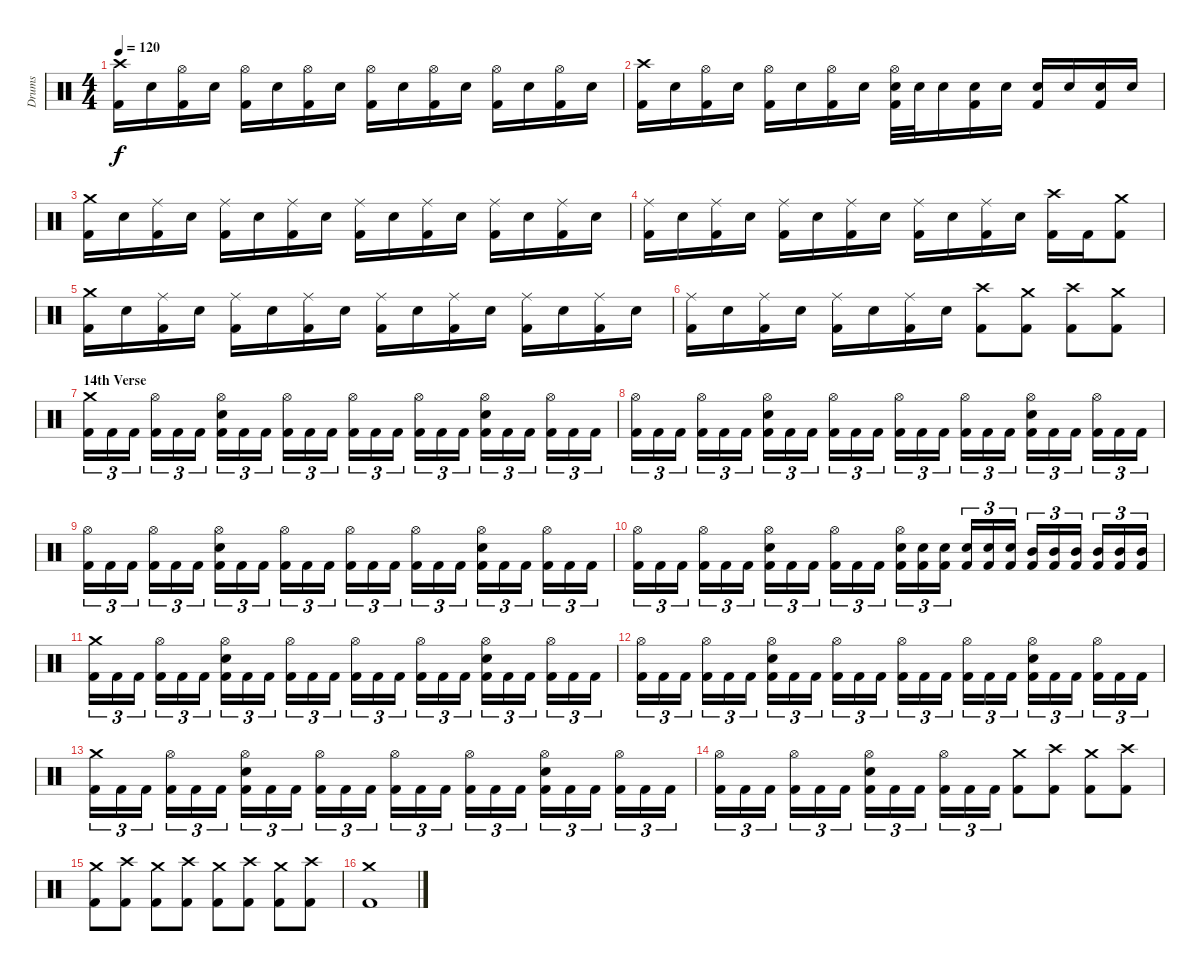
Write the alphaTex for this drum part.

\track ("Drums" "Drums") {instrument percussion}
\staff {score}
\articulation defaults
\ts (4 4)
\tempo 120
\clef neutral
\ks c
("Kick (hit) 2" "Crash high (hit)").16{dy f} "Electric Snare (hit)".16 ("Kick (hit) 2" "Hi-Hat (open)").16 "Electric Snare (hit)".16 ("Kick (hit) 2" "Hi-Hat (open)").16 "Electric Snare (hit)".16 ("Kick (hit) 2" "Hi-Hat (open)").16 "Electric Snare (hit)".16 ("Kick (hit) 2" "Hi-Hat (open)").16 "Electric Snare (hit)".16 ("Kick (hit) 2" "Hi-Hat (open)").16 "Electric Snare (hit)".16 ("Kick (hit) 2" "Hi-Hat (open)").16 "Electric Snare (hit)".16 ("Kick (hit) 2" "Hi-Hat (open)").16 "Electric Snare (hit)".16 |
("Kick (hit) 2" "Crash high (hit)").16 "Electric Snare (hit)".16 ("Kick (hit) 2" "Hi-Hat (open)").16 "Electric Snare (hit)".16 ("Kick (hit) 2" "Hi-Hat (open)").16 "Electric Snare (hit)".16 ("Kick (hit) 2" "Hi-Hat (open)").16 "Electric Snare (hit)".16 ("Kick (hit) 2" "Electric Snare (hit)" "Hi-Hat (open)").32 "Electric Snare (hit)".32 "Electric Snare (hit)".16 ("Kick (hit) 2" "Electric Snare (hit)").16 "Electric Snare (hit)".16 ("Kick (hit) 2" "Electric Snare (hit)").16 "Electric Snare (hit)".16 ("Kick (hit) 2" "Electric Snare (hit)").16 "Electric Snare (hit)".16 |
("Kick (hit) 2" "Crash medium (hit)").16 "Electric Snare (hit)".16 ("Kick (hit) 2" "Ride (middle)").16 "Electric Snare (hit)".16 ("Kick (hit) 2" "Ride (middle)").16 "Electric Snare (hit)".16 ("Kick (hit) 2" "Ride (middle)").16 "Electric Snare (hit)".16 ("Kick (hit) 2" "Ride (middle)").16 "Electric Snare (hit)".16 ("Kick (hit) 2" "Ride (middle)").16 "Electric Snare (hit)".16 ("Kick (hit) 2" "Ride (middle)").16 "Electric Snare (hit)".16 ("Kick (hit) 2" "Ride (middle)").16 "Electric Snare (hit)".16 |
("Kick (hit) 2" "Ride (middle)").16 "Electric Snare (hit)".16 ("Kick (hit) 2" "Ride (middle)").16 "Electric Snare (hit)".16 ("Kick (hit) 2" "Ride (middle)").16 "Electric Snare (hit)".16 ("Kick (hit) 2" "Ride (middle)").16 "Electric Snare (hit)".16 ("Kick (hit) 2" "Ride (middle)").16 "Electric Snare (hit)".16 ("Kick (hit) 2" "Ride (middle)").16 "Electric Snare (hit)".16 ("Kick (hit) 2" "Crash high (hit)").16 "Kick (hit) 2".16 ("Kick (hit) 2" "Crash medium (hit)").8 |
("Kick (hit) 2" "Crash medium (hit)").16 "Electric Snare (hit)".16 ("Kick (hit) 2" "Ride (middle)").16 "Electric Snare (hit)".16 ("Kick (hit) 2" "Ride (middle)").16 "Electric Snare (hit)".16 ("Kick (hit) 2" "Ride (middle)").16 "Electric Snare (hit)".16 ("Kick (hit) 2" "Ride (middle)").16 "Electric Snare (hit)".16 ("Kick (hit) 2" "Ride (middle)").16 "Electric Snare (hit)".16 ("Kick (hit) 2" "Ride (middle)").16 "Electric Snare (hit)".16 ("Kick (hit) 2" "Ride (middle)").16 "Electric Snare (hit)".16 |
("Kick (hit) 2" "Ride (middle)").16 "Electric Snare (hit)".16 ("Kick (hit) 2" "Ride (middle)").16 "Electric Snare (hit)".16 ("Kick (hit) 2" "Ride (middle)").16 "Electric Snare (hit)".16 ("Kick (hit) 2" "Ride (middle)").16 "Electric Snare (hit)".16 ("Kick (hit) 2" "Crash high (hit)").8 ("Kick (hit) 2" "Crash medium (hit)").8 ("Kick (hit) 2" "Crash high (hit)").8 ("Kick (hit) 2" "Crash medium (hit)").8 |
\section ("" "14th Verse")
("Kick (hit) 2" "Crash medium (hit)").16{tu (3 2)} "Kick (hit) 2".16{tu (3 2)} "Kick (hit) 2".16{tu (3 2)} ("Kick (hit) 2" "Hi-Hat (open)").16{tu (3 2)} "Kick (hit) 2".16{tu (3 2)} "Kick (hit) 2".16{tu (3 2)} ("Kick (hit) 2" "Electric Snare (hit)" "Hi-Hat (open)").16{tu (3 2)} "Kick (hit) 2".16{tu (3 2)} "Kick (hit) 2".16{tu (3 2)} ("Kick (hit) 2" "Hi-Hat (open)").16{tu (3 2)} "Kick (hit) 2".16{tu (3 2)} "Kick (hit) 2".16{tu (3 2)} ("Kick (hit) 2" "Hi-Hat (open)").16{tu (3 2)} "Kick (hit) 2".16{tu (3 2)} "Kick (hit) 2".16{tu (3 2)} ("Kick (hit) 2" "Hi-Hat (open)").16{tu (3 2)} "Kick (hit) 2".16{tu (3 2)} "Kick (hit) 2".16{tu (3 2)} ("Kick (hit) 2" "Electric Snare (hit)" "Hi-Hat (open)").16{tu (3 2)} "Kick (hit) 2".16{tu (3 2)} "Kick (hit) 2".16{tu (3 2)} ("Kick (hit) 2" "Hi-Hat (open)").16{tu (3 2)} "Kick (hit) 2".16{tu (3 2)} "Kick (hit) 2".16{tu (3 2)} |
("Kick (hit) 2" "Hi-Hat (open)").16{tu (3 2)} "Kick (hit) 2".16{tu (3 2)} "Kick (hit) 2".16{tu (3 2)} ("Kick (hit) 2" "Hi-Hat (open)").16{tu (3 2)} "Kick (hit) 2".16{tu (3 2)} "Kick (hit) 2".16{tu (3 2)} ("Kick (hit) 2" "Electric Snare (hit)" "Hi-Hat (open)").16{tu (3 2)} "Kick (hit) 2".16{tu (3 2)} "Kick (hit) 2".16{tu (3 2)} ("Kick (hit) 2" "Hi-Hat (open)").16{tu (3 2)} "Kick (hit) 2".16{tu (3 2)} "Kick (hit) 2".16{tu (3 2)} ("Kick (hit) 2" "Hi-Hat (open)").16{tu (3 2)} "Kick (hit) 2".16{tu (3 2)} "Kick (hit) 2".16{tu (3 2)} ("Kick (hit) 2" "Hi-Hat (open)").16{tu (3 2)} "Kick (hit) 2".16{tu (3 2)} "Kick (hit) 2".16{tu (3 2)} ("Kick (hit) 2" "Electric Snare (hit)" "Hi-Hat (open)").16{tu (3 2)} "Kick (hit) 2".16{tu (3 2)} "Kick (hit) 2".16{tu (3 2)} ("Kick (hit) 2" "Hi-Hat (open)").16{tu (3 2)} "Kick (hit) 2".16{tu (3 2)} "Kick (hit) 2".16{tu (3 2)} |
("Kick (hit) 2" "Hi-Hat (open)").16{tu (3 2)} "Kick (hit) 2".16{tu (3 2)} "Kick (hit) 2".16{tu (3 2)} ("Kick (hit) 2" "Hi-Hat (open)").16{tu (3 2)} "Kick (hit) 2".16{tu (3 2)} "Kick (hit) 2".16{tu (3 2)} ("Kick (hit) 2" "Electric Snare (hit)" "Hi-Hat (open)").16{tu (3 2)} "Kick (hit) 2".16{tu (3 2)} "Kick (hit) 2".16{tu (3 2)} ("Kick (hit) 2" "Hi-Hat (open)").16{tu (3 2)} "Kick (hit) 2".16{tu (3 2)} "Kick (hit) 2".16{tu (3 2)} ("Kick (hit) 2" "Hi-Hat (open)").16{tu (3 2)} "Kick (hit) 2".16{tu (3 2)} "Kick (hit) 2".16{tu (3 2)} ("Kick (hit) 2" "Hi-Hat (open)").16{tu (3 2)} "Kick (hit) 2".16{tu (3 2)} "Kick (hit) 2".16{tu (3 2)} ("Kick (hit) 2" "Electric Snare (hit)" "Hi-Hat (open)").16{tu (3 2)} "Kick (hit) 2".16{tu (3 2)} "Kick (hit) 2".16{tu (3 2)} ("Kick (hit) 2" "Hi-Hat (open)").16{tu (3 2)} "Kick (hit) 2".16{tu (3 2)} "Kick (hit) 2".16{tu (3 2)} |
("Kick (hit) 2" "Hi-Hat (open)").16{tu (3 2)} "Kick (hit) 2".16{tu (3 2)} "Kick (hit) 2".16{tu (3 2)} ("Kick (hit) 2" "Hi-Hat (open)").16{tu (3 2)} "Kick (hit) 2".16{tu (3 2)} "Kick (hit) 2".16{tu (3 2)} ("Kick (hit) 2" "Electric Snare (hit)" "Hi-Hat (open)").16{tu (3 2)} "Kick (hit) 2".16{tu (3 2)} "Kick (hit) 2".16{tu (3 2)} ("Kick (hit) 2" "Hi-Hat (open)").16{tu (3 2)} "Kick (hit) 2".16{tu (3 2)} "Kick (hit) 2".16{tu (3 2)} ("Kick (hit) 2" "Electric Snare (hit)" "Hi-Hat (open)").16{tu (3 2)} ("Kick (hit) 2" "Electric Snare (hit)").16{tu (3 2)} ("Kick (hit) 2" "Electric Snare (hit)").16{tu (3 2)} ("Kick (hit) 2" "Electric Snare (hit)").16{tu (3 2)} ("Kick (hit) 2" "Electric Snare (hit)").16{tu (3 2)} ("Kick (hit) 2" "Electric Snare (hit)").16{tu (3 2)} ("Kick (hit) 2" "Mid Tom (hit)").16{tu (3 2)} ("Kick (hit) 2" "Mid Tom (hit)").16{tu (3 2)} ("Kick (hit) 2" "Mid Tom (hit)").16{tu (3 2)} ("Kick (hit) 2" "Mid Tom (hit)").16{tu (3 2)} ("Kick (hit) 2" "Mid Tom (hit)").16{tu (3 2)} ("Kick (hit) 2" "Mid Tom (hit)").16{tu (3 2)} |
("Kick (hit) 2" "Crash medium (hit)").16{tu (3 2)} "Kick (hit) 2".16{tu (3 2)} "Kick (hit) 2".16{tu (3 2)} ("Kick (hit) 2" "Hi-Hat (open)").16{tu (3 2)} "Kick (hit) 2".16{tu (3 2)} "Kick (hit) 2".16{tu (3 2)} ("Kick (hit) 2" "Electric Snare (hit)" "Hi-Hat (open)").16{tu (3 2)} "Kick (hit) 2".16{tu (3 2)} "Kick (hit) 2".16{tu (3 2)} ("Kick (hit) 2" "Hi-Hat (open)").16{tu (3 2)} "Kick (hit) 2".16{tu (3 2)} "Kick (hit) 2".16{tu (3 2)} ("Kick (hit) 2" "Hi-Hat (open)").16{tu (3 2)} "Kick (hit) 2".16{tu (3 2)} "Kick (hit) 2".16{tu (3 2)} ("Kick (hit) 2" "Hi-Hat (open)").16{tu (3 2)} "Kick (hit) 2".16{tu (3 2)} "Kick (hit) 2".16{tu (3 2)} ("Kick (hit) 2" "Electric Snare (hit)" "Hi-Hat (open)").16{tu (3 2)} "Kick (hit) 2".16{tu (3 2)} "Kick (hit) 2".16{tu (3 2)} ("Kick (hit) 2" "Hi-Hat (open)").16{tu (3 2)} "Kick (hit) 2".16{tu (3 2)} "Kick (hit) 2".16{tu (3 2)} |
("Kick (hit) 2" "Hi-Hat (open)").16{tu (3 2)} "Kick (hit) 2".16{tu (3 2)} "Kick (hit) 2".16{tu (3 2)} ("Kick (hit) 2" "Hi-Hat (open)").16{tu (3 2)} "Kick (hit) 2".16{tu (3 2)} "Kick (hit) 2".16{tu (3 2)} ("Kick (hit) 2" "Electric Snare (hit)" "Hi-Hat (open)").16{tu (3 2)} "Kick (hit) 2".16{tu (3 2)} "Kick (hit) 2".16{tu (3 2)} ("Kick (hit) 2" "Hi-Hat (open)").16{tu (3 2)} "Kick (hit) 2".16{tu (3 2)} "Kick (hit) 2".16{tu (3 2)} ("Kick (hit) 2" "Hi-Hat (open)").16{tu (3 2)} "Kick (hit) 2".16{tu (3 2)} "Kick (hit) 2".16{tu (3 2)} ("Kick (hit) 2" "Hi-Hat (open)").16{tu (3 2)} "Kick (hit) 2".16{tu (3 2)} "Kick (hit) 2".16{tu (3 2)} ("Kick (hit) 2" "Electric Snare (hit)" "Hi-Hat (open)").16{tu (3 2)} "Kick (hit) 2".16{tu (3 2)} "Kick (hit) 2".16{tu (3 2)} ("Kick (hit) 2" "Hi-Hat (open)").16{tu (3 2)} "Kick (hit) 2".16{tu (3 2)} "Kick (hit) 2".16{tu (3 2)} |
("Kick (hit) 2" "Crash medium (hit)").16{tu (3 2)} "Kick (hit) 2".16{tu (3 2)} "Kick (hit) 2".16{tu (3 2)} ("Kick (hit) 2" "Hi-Hat (open)").16{tu (3 2)} "Kick (hit) 2".16{tu (3 2)} "Kick (hit) 2".16{tu (3 2)} ("Kick (hit) 2" "Electric Snare (hit)" "Hi-Hat (open)").16{tu (3 2)} "Kick (hit) 2".16{tu (3 2)} "Kick (hit) 2".16{tu (3 2)} ("Kick (hit) 2" "Hi-Hat (open)").16{tu (3 2)} "Kick (hit) 2".16{tu (3 2)} "Kick (hit) 2".16{tu (3 2)} ("Kick (hit) 2" "Hi-Hat (open)").16{tu (3 2)} "Kick (hit) 2".16{tu (3 2)} "Kick (hit) 2".16{tu (3 2)} ("Kick (hit) 2" "Hi-Hat (open)").16{tu (3 2)} "Kick (hit) 2".16{tu (3 2)} "Kick (hit) 2".16{tu (3 2)} ("Kick (hit) 2" "Electric Snare (hit)" "Hi-Hat (open)").16{tu (3 2)} "Kick (hit) 2".16{tu (3 2)} "Kick (hit) 2".16{tu (3 2)} ("Kick (hit) 2" "Hi-Hat (open)").16{tu (3 2)} "Kick (hit) 2".16{tu (3 2)} "Kick (hit) 2".16{tu (3 2)} |
("Kick (hit) 2" "Hi-Hat (open)").16{tu (3 2)} "Kick (hit) 2".16{tu (3 2)} "Kick (hit) 2".16{tu (3 2)} ("Kick (hit) 2" "Hi-Hat (open)").16{tu (3 2)} "Kick (hit) 2".16{tu (3 2)} "Kick (hit) 2".16{tu (3 2)} ("Kick (hit) 2" "Electric Snare (hit)" "Hi-Hat (open)").16{tu (3 2)} "Kick (hit) 2".16{tu (3 2)} "Kick (hit) 2".16{tu (3 2)} ("Kick (hit) 2" "Hi-Hat (open)").16{tu (3 2)} "Kick (hit) 2".16{tu (3 2)} "Kick (hit) 2".16{tu (3 2)} ("Kick (hit) 2" "Crash medium (hit)").8 ("Kick (hit) 2" "Crash high (hit)").8 ("Kick (hit) 2" "Crash medium (hit)").8 ("Kick (hit) 2" "Crash high (hit)").8 |
("Kick (hit) 2" "Crash medium (hit)").8 ("Kick (hit) 2" "Crash high (hit)").8 ("Kick (hit) 2" "Crash medium (hit)").8 ("Kick (hit) 2" "Crash high (hit)").8 ("Kick (hit) 2" "Crash medium (hit)").8 ("Kick (hit) 2" "Crash high (hit)").8 ("Kick (hit) 2" "Crash medium (hit)").8 ("Kick (hit) 2" "Crash high (hit)").8 |
("Kick (hit) 2" "Crash medium (hit)").1
